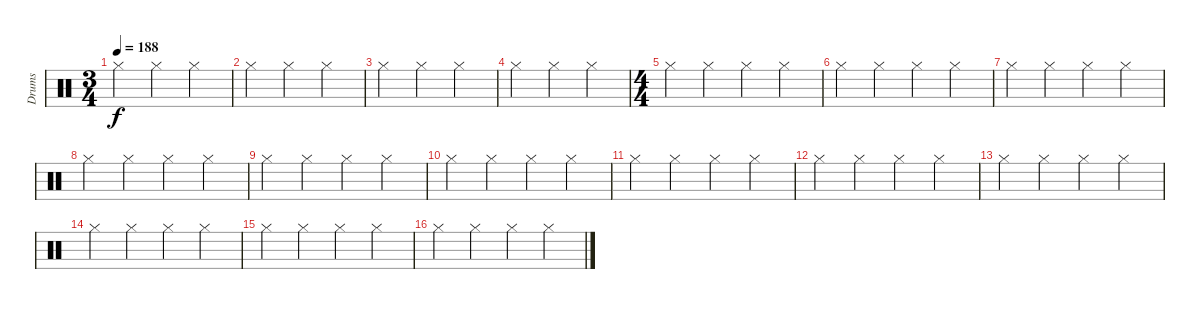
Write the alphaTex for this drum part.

\track ("Drums" "Drums") {instrument percussion}
\staff {score}
\articulation defaults
\ts (3 4)
\tempo 188
\clef neutral
\ks c "Hi-Hat (closed)".4{dy f} "Hi-Hat (closed)".4 "Hi-Hat (closed)".4
|
"Hi-Hat (closed)".4 "Hi-Hat (closed)".4 "Hi-Hat (closed)".4 |
"Hi-Hat (closed)".4 "Hi-Hat (closed)".4 "Hi-Hat (closed)".4 |
"Hi-Hat (closed)".4 "Hi-Hat (closed)".4 "Hi-Hat (closed)".4 |
\ts (4 4)
"Hi-Hat (closed)".4 "Hi-Hat (closed)".4 "Hi-Hat (closed)".4 "Hi-Hat (closed)".4 |
"Hi-Hat (closed)".4 "Hi-Hat (closed)".4 "Hi-Hat (closed)".4 "Hi-Hat (closed)".4 |
"Hi-Hat (closed)".4 "Hi-Hat (closed)".4 "Hi-Hat (closed)".4 "Hi-Hat (closed)".4 |
"Hi-Hat (closed)".4 "Hi-Hat (closed)".4 "Hi-Hat (closed)".4 "Hi-Hat (closed)".4 |
"Hi-Hat (closed)".4 "Hi-Hat (closed)".4 "Hi-Hat (closed)".4 "Hi-Hat (closed)".4 |
"Hi-Hat (closed)".4 "Hi-Hat (closed)".4 "Hi-Hat (closed)".4 "Hi-Hat (closed)".4 |
"Hi-Hat (closed)".4 "Hi-Hat (closed)".4 "Hi-Hat (closed)".4 "Hi-Hat (closed)".4 |
"Hi-Hat (closed)".4 "Hi-Hat (closed)".4 "Hi-Hat (closed)".4 "Hi-Hat (closed)".4 |
"Hi-Hat (closed)".4 "Hi-Hat (closed)".4 "Hi-Hat (closed)".4 "Hi-Hat (closed)".4 |
"Hi-Hat (closed)".4 "Hi-Hat (closed)".4 "Hi-Hat (closed)".4 "Hi-Hat (closed)".4 |
"Hi-Hat (closed)".4 "Hi-Hat (closed)".4 "Hi-Hat (closed)".4 "Hi-Hat (closed)".4 |
"Hi-Hat (closed)".4 "Hi-Hat (closed)".4 "Hi-Hat (closed)".4 "Hi-Hat (closed)".4
